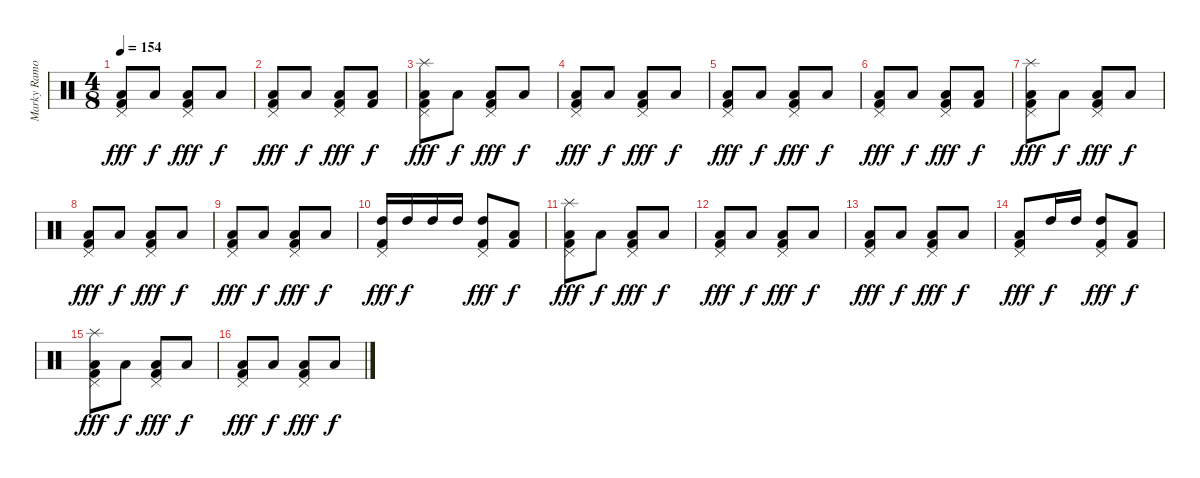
\track ("Marky Ramone - Drums" "Marky Ramo") {instrument percussion}
\staff {score}
\articulation defaults
\ts (4 8)
\tempo 154
\clef neutral
\ks c
("Low Floor Tom (hit)" "Pedal Hi-Hat (hit)" "Kick (hit) 2").8{dy fff} "Low Floor Tom (hit)".8{dy f} ("Low Floor Tom (hit)" "Pedal Hi-Hat (hit)" "Kick (hit) 2").8{dy fff} "Low Floor Tom (hit)".8{dy f} |
("Low Floor Tom (hit)" "Pedal Hi-Hat (hit)" "Kick (hit) 2").8{dy fff} "Low Floor Tom (hit)".8{dy f} ("Low Floor Tom (hit)" "Pedal Hi-Hat (hit)" "Kick (hit) 2").8{dy fff} ("Low Floor Tom (hit)" "Kick (hit) 2").8{dy f} |
("Low Floor Tom (hit)" "Splash (hit)" "Pedal Hi-Hat (hit)" "Kick (hit) 2").8{dy fff} "Low Floor Tom (hit)".8{dy f} ("Low Floor Tom (hit)" "Pedal Hi-Hat (hit)" "Kick (hit) 2").8{dy fff} "Low Floor Tom (hit)".8{dy f} |
("Low Floor Tom (hit)" "Pedal Hi-Hat (hit)" "Kick (hit) 2").8{dy fff} "Low Floor Tom (hit)".8{dy f} ("Low Floor Tom (hit)" "Pedal Hi-Hat (hit)" "Kick (hit) 2").8{dy fff} "Low Floor Tom (hit)".8{dy f} |
("Low Floor Tom (hit)" "Pedal Hi-Hat (hit)" "Kick (hit) 2").8{dy fff} "Low Floor Tom (hit)".8{dy f} ("Low Floor Tom (hit)" "Pedal Hi-Hat (hit)" "Kick (hit) 2").8{dy fff} "Low Floor Tom (hit)".8{dy f} |
("Low Floor Tom (hit)" "Pedal Hi-Hat (hit)" "Kick (hit) 2").8{dy fff} "Low Floor Tom (hit)".8{dy f} ("Low Floor Tom (hit)" "Pedal Hi-Hat (hit)" "Kick (hit) 2").8{dy fff} ("Low Floor Tom (hit)" "Kick (hit) 2").8{dy f} |
("Low Floor Tom (hit)" "Splash (hit)" "Pedal Hi-Hat (hit)" "Kick (hit) 2").8{dy fff} "Low Floor Tom (hit)".8{dy f} ("Low Floor Tom (hit)" "Pedal Hi-Hat (hit)" "Kick (hit) 2").8{dy fff} "Low Floor Tom (hit)".8{dy f} |
("Low Floor Tom (hit)" "Pedal Hi-Hat (hit)" "Kick (hit) 2").8{dy fff} "Low Floor Tom (hit)".8{dy f} ("Low Floor Tom (hit)" "Pedal Hi-Hat (hit)" "Kick (hit) 2").8{dy fff} "Low Floor Tom (hit)".8{dy f} |
("Low Floor Tom (hit)" "Pedal Hi-Hat (hit)" "Kick (hit) 2").8{dy fff} "Low Floor Tom (hit)".8{dy f} ("Low Floor Tom (hit)" "Pedal Hi-Hat (hit)" "Kick (hit) 2").8{dy fff} "Low Floor Tom (hit)".8{dy f} |
("High Tom (hit)" "Pedal Hi-Hat (hit)" "Kick (hit) 2").16{dy fff} "High Tom (hit)".16{dy f} "High Tom (hit)".16 "High Tom (hit)".16 ("High Tom (hit)" "Pedal Hi-Hat (hit)" "Kick (hit) 2").8{dy fff} ("Low Floor Tom (hit)" "Kick (hit) 2").8{dy f} |
("Low Floor Tom (hit)" "Splash (hit)" "Pedal Hi-Hat (hit)" "Kick (hit) 2").8{dy fff} "Low Floor Tom (hit)".8{dy f} ("Low Floor Tom (hit)" "Pedal Hi-Hat (hit)" "Kick (hit) 2").8{dy fff} "Low Floor Tom (hit)".8{dy f} |
("Low Floor Tom (hit)" "Pedal Hi-Hat (hit)" "Kick (hit) 2").8{dy fff} "Low Floor Tom (hit)".8{dy f} ("Low Floor Tom (hit)" "Pedal Hi-Hat (hit)" "Kick (hit) 2").8{dy fff} "Low Floor Tom (hit)".8{dy f} |
("Low Floor Tom (hit)" "Pedal Hi-Hat (hit)" "Kick (hit) 2").8{dy fff} "Low Floor Tom (hit)".8{dy f} ("Low Floor Tom (hit)" "Pedal Hi-Hat (hit)" "Kick (hit) 2").8{dy fff} "Low Floor Tom (hit)".8{dy f} |
("Low Floor Tom (hit)" "Pedal Hi-Hat (hit)" "Kick (hit) 2").8{dy fff} "High Tom (hit)".16{dy f} "High Tom (hit)".16 ("High Tom (hit)" "Pedal Hi-Hat (hit)" "Kick (hit) 2").8{dy fff} ("Low Floor Tom (hit)" "Kick (hit) 2").8{dy f} |
("Low Floor Tom (hit)" "Splash (hit)" "Pedal Hi-Hat (hit)" "Kick (hit) 2").8{dy fff} "Low Floor Tom (hit)".8{dy f} ("Low Floor Tom (hit)" "Pedal Hi-Hat (hit)" "Kick (hit) 2").8{dy fff} "Low Floor Tom (hit)".8{dy f} |
("Low Floor Tom (hit)" "Pedal Hi-Hat (hit)" "Kick (hit) 2").8{dy fff} "Low Floor Tom (hit)".8{dy f} ("Low Floor Tom (hit)" "Pedal Hi-Hat (hit)" "Kick (hit) 2").8{dy fff} "Low Floor Tom (hit)".8{dy f}
